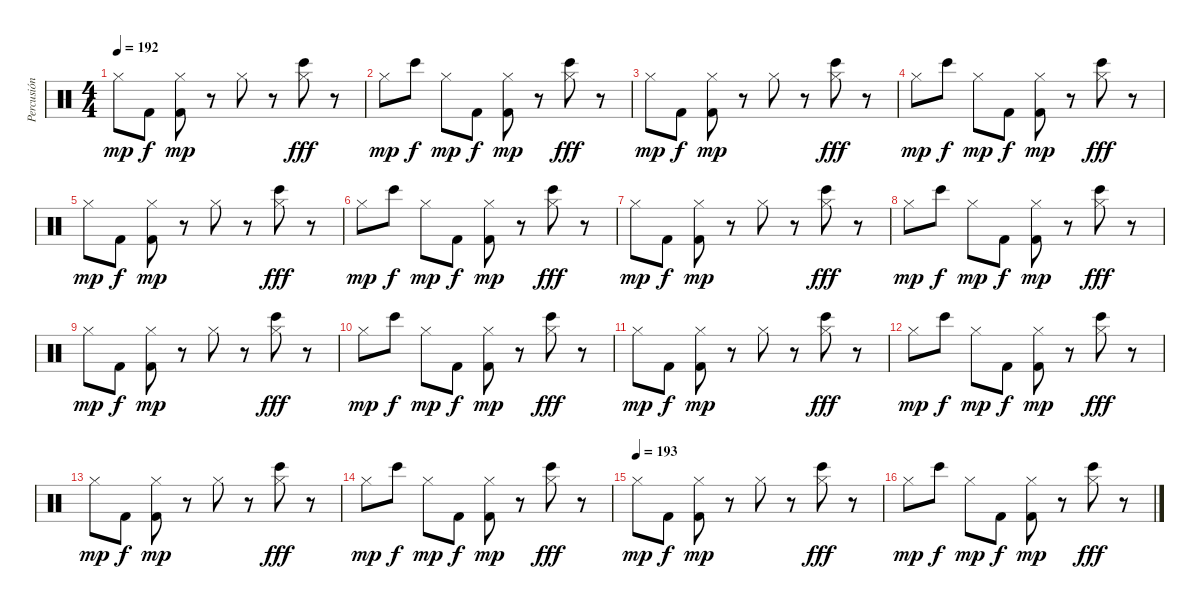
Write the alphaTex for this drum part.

\track ("Percusión" "Percusión") {instrument percussion}
\staff {score}
\articulation defaults
\ts (4 4)
\tempo 192
\clef neutral
\ks c "Hi-Hat (closed)".8{dy mp} "Kick (hit) 2".8{dy f}
("Hi-Hat (closed)" "Kick (hit) 2").8{dy mp} r.8 "Hi-Hat (closed)".8 r.8 ("Hi-Hat (closed)" "Bongo High (hit)").8{dy fff} r.8 |
"Hi-Hat (closed)".8{dy mp} "Bongo High (hit)".8{dy f} "Hi-Hat (closed)".8{dy mp} "Kick (hit) 2".8{dy f} ("Hi-Hat (closed)" "Kick (hit) 2").8{dy mp} r.8 ("Hi-Hat (closed)" "Bongo High (hit)").8{dy fff} r.8 |
"Hi-Hat (closed)".8{dy mp} "Kick (hit) 2".8{dy f} ("Hi-Hat (closed)" "Kick (hit) 2").8{dy mp} r.8 "Hi-Hat (closed)".8 r.8 ("Hi-Hat (closed)" "Bongo High (hit)").8{dy fff} r.8 |
"Hi-Hat (closed)".8{dy mp} "Bongo High (hit)".8{dy f} "Hi-Hat (closed)".8{dy mp} "Kick (hit) 2".8{dy f} ("Hi-Hat (closed)" "Kick (hit) 2").8{dy mp} r.8 ("Hi-Hat (closed)" "Bongo High (hit)").8{dy fff} r.8 |
"Hi-Hat (closed)".8{dy mp} "Kick (hit) 2".8{dy f} ("Hi-Hat (closed)" "Kick (hit) 2").8{dy mp} r.8 "Hi-Hat (closed)".8 r.8 ("Hi-Hat (closed)" "Bongo High (hit)").8{dy fff} r.8 |
"Hi-Hat (closed)".8{dy mp} "Bongo High (hit)".8{dy f} "Hi-Hat (closed)".8{dy mp} "Kick (hit) 2".8{dy f} ("Hi-Hat (closed)" "Kick (hit) 2").8{dy mp} r.8 ("Hi-Hat (closed)" "Bongo High (hit)").8{dy fff} r.8 |
"Hi-Hat (closed)".8{dy mp} "Kick (hit) 2".8{dy f} ("Hi-Hat (closed)" "Kick (hit) 2").8{dy mp} r.8 "Hi-Hat (closed)".8 r.8 ("Hi-Hat (closed)" "Bongo High (hit)").8{dy fff} r.8 |
"Hi-Hat (closed)".8{dy mp} "Bongo High (hit)".8{dy f} "Hi-Hat (closed)".8{dy mp} "Kick (hit) 2".8{dy f} ("Hi-Hat (closed)" "Kick (hit) 2").8{dy mp} r.8 ("Hi-Hat (closed)" "Bongo High (hit)").8{dy fff} r.8 |
"Hi-Hat (closed)".8{dy mp} "Kick (hit) 2".8{dy f} ("Hi-Hat (closed)" "Kick (hit) 2").8{dy mp} r.8 "Hi-Hat (closed)".8 r.8 ("Hi-Hat (closed)" "Bongo High (hit)").8{dy fff} r.8 |
"Hi-Hat (closed)".8{dy mp} "Bongo High (hit)".8{dy f} "Hi-Hat (closed)".8{dy mp} "Kick (hit) 2".8{dy f} ("Hi-Hat (closed)" "Kick (hit) 2").8{dy mp} r.8 ("Hi-Hat (closed)" "Bongo High (hit)").8{dy fff} r.8 |
"Hi-Hat (closed)".8{dy mp} "Kick (hit) 2".8{dy f} ("Hi-Hat (closed)" "Kick (hit) 2").8{dy mp} r.8 "Hi-Hat (closed)".8 r.8 ("Hi-Hat (closed)" "Bongo High (hit)").8{dy fff} r.8 |
"Hi-Hat (closed)".8{dy mp} "Bongo High (hit)".8{dy f} "Hi-Hat (closed)".8{dy mp} "Kick (hit) 2".8{dy f} ("Hi-Hat (closed)" "Kick (hit) 2").8{dy mp} r.8 ("Hi-Hat (closed)" "Bongo High (hit)").8{dy fff} r.8 |
"Hi-Hat (closed)".8{dy mp} "Kick (hit) 2".8{dy f} ("Hi-Hat (closed)" "Kick (hit) 2").8{dy mp} r.8 "Hi-Hat (closed)".8 r.8 ("Hi-Hat (closed)" "Bongo High (hit)").8{dy fff} r.8 |
"Hi-Hat (closed)".8{dy mp} "Bongo High (hit)".8{dy f} "Hi-Hat (closed)".8{dy mp} "Kick (hit) 2".8{dy f} ("Hi-Hat (closed)" "Kick (hit) 2").8{dy mp} r.8 ("Hi-Hat (closed)" "Bongo High (hit)").8{dy fff} r.8 |
\tempo (193)
"Hi-Hat (closed)".8{dy mp} "Kick (hit) 2".8{dy f} ("Hi-Hat (closed)" "Kick (hit) 2").8{dy mp} r.8 "Hi-Hat (closed)".8 r.8 ("Hi-Hat (closed)" "Bongo High (hit)").8{dy fff} r.8 |
"Hi-Hat (closed)".8{dy mp} "Bongo High (hit)".8{dy f} "Hi-Hat (closed)".8{dy mp} "Kick (hit) 2".8{dy f} ("Hi-Hat (closed)" "Kick (hit) 2").8{dy mp} r.8 ("Hi-Hat (closed)" "Bongo High (hit)").8{dy fff} r.8
